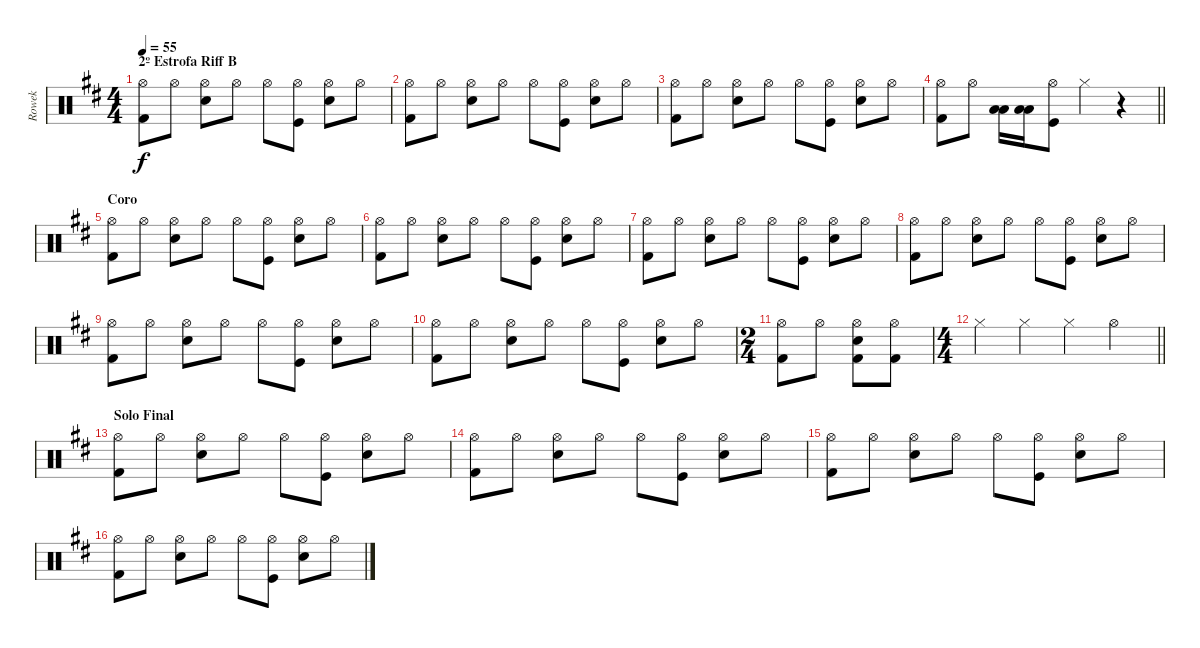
\track ("Rowek" "Rowek") {instrument percussion}
\staff {score}
\articulation defaults
\ts (4 4)
\section ("" "2º Estrofa Riff B")
\tempo 55
\clef neutral
\ks d
("Hi-Hat (open)" "Kick (hit) 2").8{dy f} "Hi-Hat (open)".8 ("Hi-Hat (open)" "Electric Snare (hit)").8 "Hi-Hat (open)".8 "Hi-Hat (open)".8 ("Hi-Hat (open)" "Kick (hit)").8 ("Hi-Hat (open)" "Snare (hit) 2").8 "Hi-Hat (open)".8 |
("Hi-Hat (open)" "Kick (hit) 2").8 "Hi-Hat (open)".8 ("Hi-Hat (open)" "Electric Snare (hit)").8 "Hi-Hat (open)".8 "Hi-Hat (open)".8 ("Hi-Hat (open)" "Kick (hit)").8 ("Hi-Hat (open)" "Snare (hit) 2").8 "Hi-Hat (open)".8 |
("Hi-Hat (open)" "Kick (hit) 2").8 "Hi-Hat (open)".8 ("Hi-Hat (open)" "Electric Snare (hit)").8 "Hi-Hat (open)".8 "Hi-Hat (open)".8 ("Hi-Hat (open)" "Kick (hit)").8 ("Hi-Hat (open)" "Snare (hit) 2").8 "Hi-Hat (open)".8 |
\barLineRight lightlight
("Hi-Hat (open)" "Kick (hit) 2").8 "Hi-Hat (open)".8 ("Low Tom (hit)" "Low Floor Tom (hit)").16 ("Low Tom (hit)" "Low Floor Tom (hit)").16 ("Hi-Hat (open)" "Kick (hit)").8 "Hi-Hat (closed)".4 r.4 |
\section ("" "Coro")
("Hi-Hat (open)" "Kick (hit) 2").8 "Hi-Hat (open)".8 ("Hi-Hat (open)" "Electric Snare (hit)").8 "Hi-Hat (open)".8 "Hi-Hat (open)".8 ("Hi-Hat (open)" "Kick (hit)").8 ("Hi-Hat (open)" "Snare (hit) 2").8 "Hi-Hat (open)".8 |
("Hi-Hat (open)" "Kick (hit) 2").8 "Hi-Hat (open)".8 ("Hi-Hat (open)" "Electric Snare (hit)").8 "Hi-Hat (open)".8 "Hi-Hat (open)".8 ("Hi-Hat (open)" "Kick (hit)").8 ("Hi-Hat (open)" "Snare (hit) 2").8 "Hi-Hat (open)".8 |
("Hi-Hat (open)" "Kick (hit) 2").8 "Hi-Hat (open)".8 ("Hi-Hat (open)" "Electric Snare (hit)").8 "Hi-Hat (open)".8 "Hi-Hat (open)".8 ("Hi-Hat (open)" "Kick (hit)").8 ("Hi-Hat (open)" "Snare (hit) 2").8 "Hi-Hat (open)".8 |
("Hi-Hat (open)" "Kick (hit) 2").8 "Hi-Hat (open)".8 ("Hi-Hat (open)" "Electric Snare (hit)").8 "Hi-Hat (open)".8 "Hi-Hat (open)".8 ("Hi-Hat (open)" "Kick (hit)").8 ("Hi-Hat (open)" "Snare (hit) 2").8 "Hi-Hat (open)".8 |
("Hi-Hat (open)" "Kick (hit) 2").8 "Hi-Hat (open)".8 ("Hi-Hat (open)" "Electric Snare (hit)").8 "Hi-Hat (open)".8 "Hi-Hat (open)".8 ("Hi-Hat (open)" "Kick (hit)").8 ("Hi-Hat (open)" "Snare (hit) 2").8 "Hi-Hat (open)".8 |
("Hi-Hat (open)" "Kick (hit) 2").8 "Hi-Hat (open)".8 ("Hi-Hat (open)" "Electric Snare (hit)").8 "Hi-Hat (open)".8 "Hi-Hat (open)".8 ("Hi-Hat (open)" "Kick (hit)").8 ("Hi-Hat (open)" "Snare (hit) 2").8 "Hi-Hat (open)".8 |
\ts (2 4)
("Hi-Hat (open)" "Kick (hit) 2").8 "Hi-Hat (open)".8 ("Hi-Hat (open)" "Electric Snare (hit)" "Kick (hit) 2").8 ("Hi-Hat (open)" "Kick (hit) 2").8 |
\ts (4 4)
\barLineRight lightlight "Hi-Hat (closed)".4 "Hi-Hat (closed)".4 "Hi-Hat (closed)".4 "Hi-Hat (open)".4
|
\section ("" "Solo Final")
("Hi-Hat (open)" "Kick (hit) 2").8 "Hi-Hat (open)".8 ("Hi-Hat (open)" "Electric Snare (hit)").8 "Hi-Hat (open)".8 "Hi-Hat (open)".8 ("Hi-Hat (open)" "Kick (hit)").8 ("Hi-Hat (open)" "Snare (hit) 2").8 "Hi-Hat (open)".8 |
("Hi-Hat (open)" "Kick (hit) 2").8 "Hi-Hat (open)".8 ("Hi-Hat (open)" "Electric Snare (hit)").8 "Hi-Hat (open)".8 "Hi-Hat (open)".8 ("Hi-Hat (open)" "Kick (hit)").8 ("Hi-Hat (open)" "Snare (hit) 2").8 "Hi-Hat (open)".8 |
("Hi-Hat (open)" "Kick (hit) 2").8 "Hi-Hat (open)".8 ("Hi-Hat (open)" "Electric Snare (hit)").8 "Hi-Hat (open)".8 "Hi-Hat (open)".8 ("Hi-Hat (open)" "Kick (hit)").8 ("Hi-Hat (open)" "Snare (hit) 2").8 "Hi-Hat (open)".8 |
("Hi-Hat (open)" "Kick (hit) 2").8 "Hi-Hat (open)".8 ("Hi-Hat (open)" "Electric Snare (hit)").8 "Hi-Hat (open)".8 "Hi-Hat (open)".8 ("Hi-Hat (open)" "Kick (hit)").8 ("Hi-Hat (open)" "Snare (hit) 2").8 "Hi-Hat (open)".8
